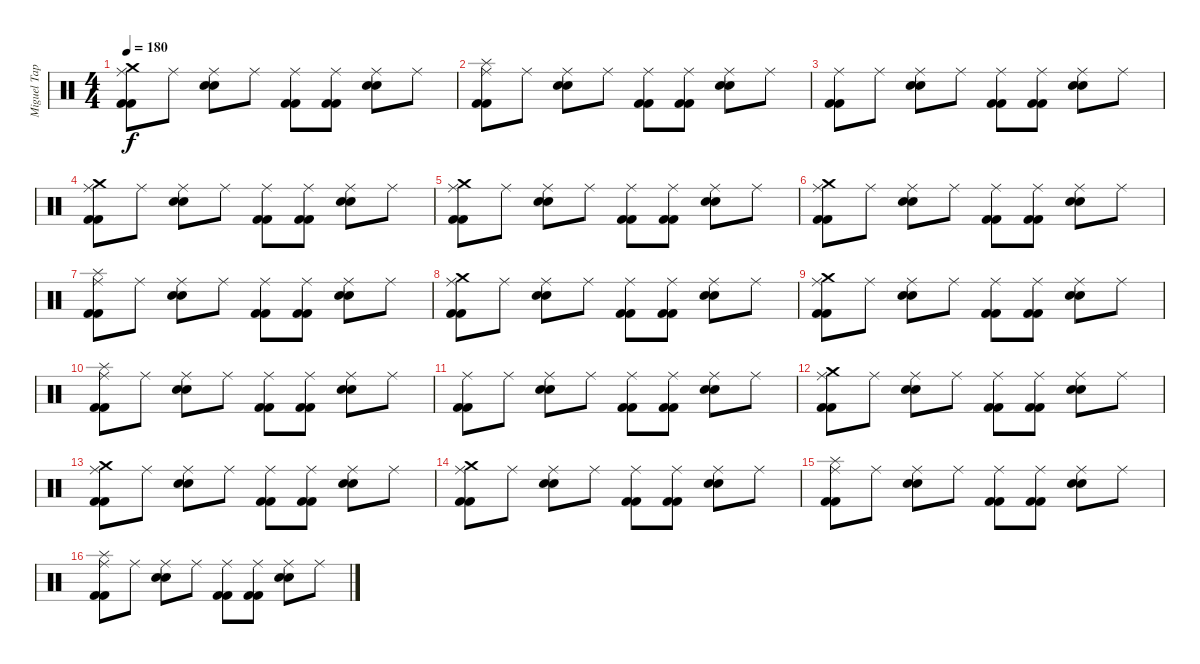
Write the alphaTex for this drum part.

\track ("Miguel Tapia" "Miguel Tap") {instrument percussion}
\staff {score}
\articulation defaults
\ts (4 4)
\tempo 180
\clef neutral
\ks c
("Ride (middle)" "Kick (hit) 2" "Kick (hit) 2" "Crash medium (hit)").8{dy f} "Ride (middle)".8 ("Ride (middle)" "Electric Snare (hit)" "Electric Snare (hit)").8 "Ride (middle)".8 ("Ride (middle)" "Kick (hit) 2" "Kick (hit) 2").8 ("Ride (middle)" "Kick (hit) 2" "Kick (hit) 2").8 ("Ride (middle)" "Electric Snare (hit)" "Electric Snare (hit)").8 "Ride (middle)".8 |
("Ride (middle)" "Kick (hit) 2" "Kick (hit) 2" "Splash (hit)").8 "Ride (middle)".8 ("Ride (middle)" "Electric Snare (hit)" "Electric Snare (hit)").8 "Ride (middle)".8 ("Ride (middle)" "Kick (hit) 2" "Kick (hit) 2").8 ("Ride (middle)" "Kick (hit) 2" "Kick (hit) 2").8 ("Ride (middle)" "Electric Snare (hit)" "Electric Snare (hit)").8 "Ride (middle)".8 |
("Ride (middle)" "Kick (hit) 2" "Kick (hit) 2").8 "Ride (middle)".8 ("Ride (middle)" "Electric Snare (hit)" "Electric Snare (hit)").8 "Ride (middle)".8 ("Ride (middle)" "Kick (hit) 2" "Kick (hit) 2").8 ("Ride (middle)" "Kick (hit) 2" "Kick (hit) 2").8 ("Ride (middle)" "Electric Snare (hit)" "Electric Snare (hit)").8 "Ride (middle)".8 |
("Ride (middle)" "Kick (hit) 2" "Kick (hit) 2" "Crash medium (hit)").8 "Ride (middle)".8 ("Ride (middle)" "Electric Snare (hit)" "Electric Snare (hit)").8 "Ride (middle)".8 ("Ride (middle)" "Kick (hit) 2" "Kick (hit) 2").8 ("Ride (middle)" "Kick (hit) 2" "Kick (hit) 2").8 ("Ride (middle)" "Electric Snare (hit)" "Electric Snare (hit)").8 "Ride (middle)".8 |
("Ride (middle)" "Kick (hit) 2" "Kick (hit) 2" "Crash medium (hit)").8 "Ride (middle)".8 ("Ride (middle)" "Electric Snare (hit)" "Electric Snare (hit)").8 "Ride (middle)".8 ("Ride (middle)" "Kick (hit) 2" "Kick (hit) 2").8 ("Ride (middle)" "Kick (hit) 2" "Kick (hit) 2").8 ("Ride (middle)" "Electric Snare (hit)" "Electric Snare (hit)").8 "Ride (middle)".8 |
("Ride (middle)" "Kick (hit) 2" "Kick (hit) 2" "Crash medium (hit)").8 "Ride (middle)".8 ("Ride (middle)" "Electric Snare (hit)" "Electric Snare (hit)").8 "Ride (middle)".8 ("Ride (middle)" "Kick (hit) 2" "Kick (hit) 2").8 ("Ride (middle)" "Kick (hit) 2" "Kick (hit) 2").8 ("Ride (middle)" "Electric Snare (hit)" "Electric Snare (hit)").8 "Ride (middle)".8 |
("Ride (middle)" "Kick (hit) 2" "Kick (hit) 2" "Splash (hit)").8 "Ride (middle)".8 ("Ride (middle)" "Electric Snare (hit)" "Electric Snare (hit)").8 "Ride (middle)".8 ("Ride (middle)" "Kick (hit) 2" "Kick (hit) 2").8 ("Ride (middle)" "Kick (hit) 2" "Kick (hit) 2").8 ("Ride (middle)" "Electric Snare (hit)" "Electric Snare (hit)").8 "Ride (middle)".8 |
("Ride (middle)" "Kick (hit) 2" "Kick (hit) 2" "Crash medium (hit)").8 "Ride (middle)".8 ("Ride (middle)" "Electric Snare (hit)" "Electric Snare (hit)").8 "Ride (middle)".8 ("Ride (middle)" "Kick (hit) 2" "Kick (hit) 2").8 ("Ride (middle)" "Kick (hit) 2" "Kick (hit) 2").8 ("Ride (middle)" "Electric Snare (hit)" "Electric Snare (hit)").8 "Ride (middle)".8 |
("Ride (middle)" "Kick (hit) 2" "Kick (hit) 2" "Crash medium (hit)").8 "Ride (middle)".8 ("Ride (middle)" "Electric Snare (hit)" "Electric Snare (hit)").8 "Ride (middle)".8 ("Ride (middle)" "Kick (hit) 2" "Kick (hit) 2").8 ("Ride (middle)" "Kick (hit) 2" "Kick (hit) 2").8 ("Ride (middle)" "Electric Snare (hit)" "Electric Snare (hit)").8 "Ride (middle)".8 |
("Ride (middle)" "Kick (hit) 2" "Kick (hit) 2" "Splash (hit)").8 "Ride (middle)".8 ("Ride (middle)" "Electric Snare (hit)" "Electric Snare (hit)").8 "Ride (middle)".8 ("Ride (middle)" "Kick (hit) 2" "Kick (hit) 2").8 ("Ride (middle)" "Kick (hit) 2" "Kick (hit) 2").8 ("Ride (middle)" "Electric Snare (hit)" "Electric Snare (hit)").8 "Ride (middle)".8 |
("Ride (middle)" "Kick (hit) 2" "Kick (hit) 2").8 "Ride (middle)".8 ("Ride (middle)" "Electric Snare (hit)" "Electric Snare (hit)").8 "Ride (middle)".8 ("Ride (middle)" "Kick (hit) 2" "Kick (hit) 2").8 ("Ride (middle)" "Kick (hit) 2" "Kick (hit) 2").8 ("Ride (middle)" "Electric Snare (hit)" "Electric Snare (hit)").8 "Ride (middle)".8 |
("Ride (middle)" "Kick (hit) 2" "Kick (hit) 2" "Crash medium (hit)").8 "Ride (middle)".8 ("Ride (middle)" "Electric Snare (hit)" "Electric Snare (hit)").8 "Ride (middle)".8 ("Ride (middle)" "Kick (hit) 2" "Kick (hit) 2").8 ("Ride (middle)" "Kick (hit) 2" "Kick (hit) 2").8 ("Ride (middle)" "Electric Snare (hit)" "Electric Snare (hit)").8 "Ride (middle)".8 |
("Ride (middle)" "Kick (hit) 2" "Kick (hit) 2" "Crash medium (hit)").8 "Ride (middle)".8 ("Ride (middle)" "Electric Snare (hit)" "Electric Snare (hit)").8 "Ride (middle)".8 ("Ride (middle)" "Kick (hit) 2" "Kick (hit) 2").8 ("Ride (middle)" "Kick (hit) 2" "Kick (hit) 2").8 ("Ride (middle)" "Electric Snare (hit)" "Electric Snare (hit)").8 "Ride (middle)".8 |
("Ride (middle)" "Kick (hit) 2" "Kick (hit) 2" "Crash medium (hit)").8 "Ride (middle)".8 ("Ride (middle)" "Electric Snare (hit)" "Electric Snare (hit)").8 "Ride (middle)".8 ("Ride (middle)" "Kick (hit) 2" "Kick (hit) 2").8 ("Ride (middle)" "Kick (hit) 2" "Kick (hit) 2").8 ("Ride (middle)" "Electric Snare (hit)" "Electric Snare (hit)").8 "Ride (middle)".8 |
("Ride (middle)" "Kick (hit) 2" "Kick (hit) 2" "Splash (hit)").8 "Ride (middle)".8 ("Ride (middle)" "Electric Snare (hit)" "Electric Snare (hit)").8 "Ride (middle)".8 ("Ride (middle)" "Kick (hit) 2" "Kick (hit) 2").8 ("Ride (middle)" "Kick (hit) 2" "Kick (hit) 2").8 ("Ride (middle)" "Electric Snare (hit)" "Electric Snare (hit)").8 "Ride (middle)".8 |
("Ride (middle)" "Kick (hit) 2" "Kick (hit) 2" "Splash (hit)").8 "Ride (middle)".8 ("Ride (middle)" "Electric Snare (hit)" "Electric Snare (hit)").8 "Ride (middle)".8 ("Ride (middle)" "Kick (hit) 2" "Kick (hit) 2").8 ("Ride (middle)" "Kick (hit) 2" "Kick (hit) 2").8 ("Ride (middle)" "Electric Snare (hit)" "Electric Snare (hit)").8 "Ride (middle)".8
